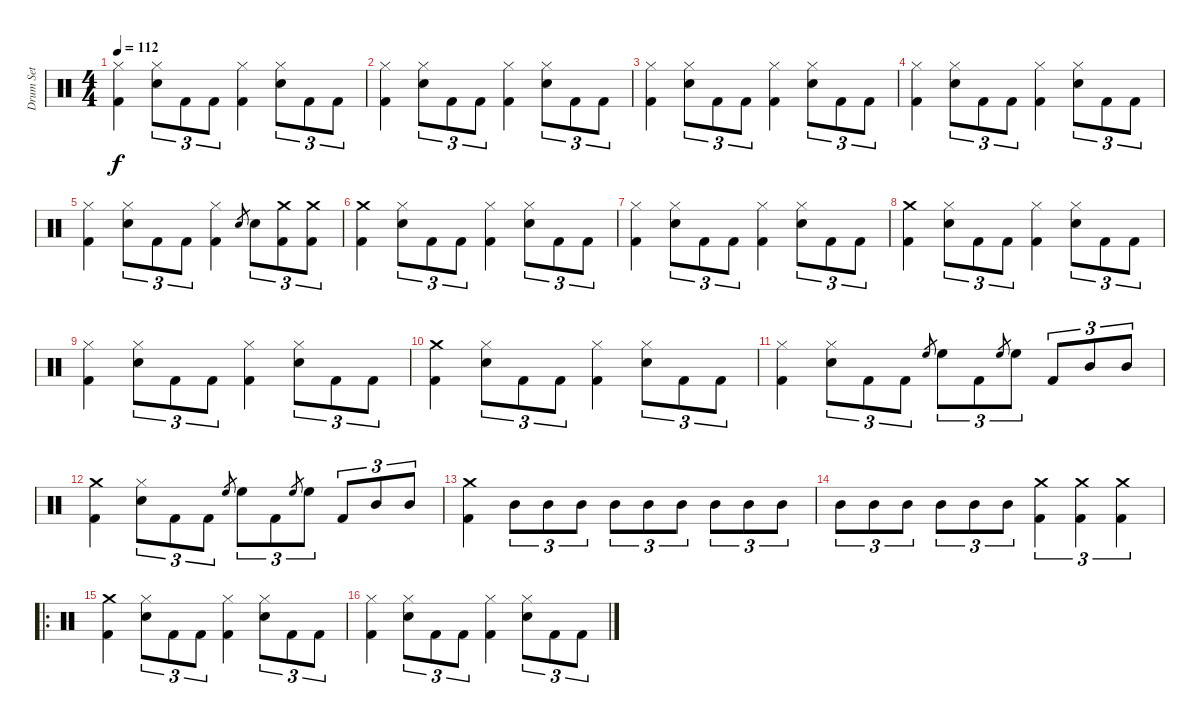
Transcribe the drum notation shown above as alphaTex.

\track ("Drum Set" "Drum Set") {instrument percussion}
\staff {score}
\articulation defaults
\ts (4 4)
\tempo 112
\clef neutral
\ks c
("Hi-Hat (closed)" "Kick (hit) 2").4{dy f} ("Hi-Hat (closed)" "Snare (hit) 2").8{tu (3 2)} "Kick (hit) 2".8{tu (3 2)} "Kick (hit) 2".8{tu (3 2)} ("Hi-Hat (closed)" "Kick (hit) 2").4 ("Hi-Hat (closed)" "Snare (hit) 2").8{tu (3 2)} "Kick (hit) 2".8{tu (3 2)} "Kick (hit) 2".8{tu (3 2)} |
("Hi-Hat (closed)" "Kick (hit) 2").4 ("Hi-Hat (closed)" "Snare (hit) 2").8{tu (3 2)} "Kick (hit) 2".8{tu (3 2)} "Kick (hit) 2".8{tu (3 2)} ("Hi-Hat (closed)" "Kick (hit) 2").4 ("Hi-Hat (closed)" "Snare (hit) 2").8{tu (3 2)} "Kick (hit) 2".8{tu (3 2)} "Kick (hit) 2".8{tu (3 2)} |
("Hi-Hat (closed)" "Kick (hit) 2").4 ("Hi-Hat (closed)" "Snare (hit) 2").8{tu (3 2)} "Kick (hit) 2".8{tu (3 2)} "Kick (hit) 2".8{tu (3 2)} ("Hi-Hat (closed)" "Kick (hit) 2").4 ("Hi-Hat (closed)" "Snare (hit) 2").8{tu (3 2)} "Kick (hit) 2".8{tu (3 2)} "Kick (hit) 2".8{tu (3 2)} |
("Hi-Hat (closed)" "Kick (hit) 2").4 ("Hi-Hat (closed)" "Snare (hit) 2").8{tu (3 2)} "Kick (hit) 2".8{tu (3 2)} "Kick (hit) 2".8{tu (3 2)} ("Hi-Hat (closed)" "Kick (hit) 2").4 ("Hi-Hat (closed)" "Snare (hit) 2").8{tu (3 2)} "Kick (hit) 2".8{tu (3 2)} "Kick (hit) 2".8{tu (3 2)} |
("Hi-Hat (closed)" "Kick (hit) 2").4 ("Hi-Hat (closed)" "Snare (hit) 2").8{tu (3 2)} "Kick (hit) 2".8{tu (3 2)} "Kick (hit) 2".8{tu (3 2)} ("Hi-Hat (closed)" "Kick (hit) 2").4 "Snare (hit) 2".8{gr} "Snare (hit) 2".8{tu (3 2)} ("Crash medium (hit)" "Kick (hit) 2").8{tu (3 2)} ("Crash medium (hit)" "Kick (hit) 2").8{tu (3 2)} |
("Crash medium (hit)" "Kick (hit) 2").4 ("Hi-Hat (closed)" "Snare (hit) 2").8{tu (3 2)} "Kick (hit) 2".8{tu (3 2)} "Kick (hit) 2".8{tu (3 2)} ("Hi-Hat (closed)" "Kick (hit) 2").4 ("Hi-Hat (closed)" "Snare (hit) 2").8{tu (3 2)} "Kick (hit) 2".8{tu (3 2)} "Kick (hit) 2".8{tu (3 2)} |
("Hi-Hat (closed)" "Kick (hit) 2").4 ("Hi-Hat (closed)" "Snare (hit) 2").8{tu (3 2)} "Kick (hit) 2".8{tu (3 2)} "Kick (hit) 2".8{tu (3 2)} ("Hi-Hat (closed)" "Kick (hit) 2").4 ("Hi-Hat (closed)" "Snare (hit) 2").8{tu (3 2)} "Kick (hit) 2".8{tu (3 2)} "Kick (hit) 2".8{tu (3 2)} |
("Crash medium (hit)" "Kick (hit) 2").4 ("Hi-Hat (closed)" "Snare (hit) 2").8{tu (3 2)} "Kick (hit) 2".8{tu (3 2)} "Kick (hit) 2".8{tu (3 2)} ("Hi-Hat (closed)" "Kick (hit) 2").4 ("Hi-Hat (closed)" "Snare (hit) 2").8{tu (3 2)} "Kick (hit) 2".8{tu (3 2)} "Kick (hit) 2".8{tu (3 2)} |
("Hi-Hat (closed)" "Kick (hit) 2").4 ("Hi-Hat (closed)" "Snare (hit) 2").8{tu (3 2)} "Kick (hit) 2".8{tu (3 2)} "Kick (hit) 2".8{tu (3 2)} ("Hi-Hat (closed)" "Kick (hit) 2").4 ("Hi-Hat (closed)" "Snare (hit) 2").8{tu (3 2)} "Kick (hit) 2".8{tu (3 2)} "Kick (hit) 2".8{tu (3 2)} |
("Crash medium (hit)" "Kick (hit) 2").4 ("Hi-Hat (closed)" "Snare (hit) 2").8{tu (3 2)} "Kick (hit) 2".8{tu (3 2)} "Kick (hit) 2".8{tu (3 2)} ("Hi-Hat (closed)" "Kick (hit) 2").4 ("Hi-Hat (closed)" "Snare (hit) 2").8{tu (3 2)} "Kick (hit) 2".8{tu (3 2)} "Kick (hit) 2".8{tu (3 2)} |
("Hi-Hat (closed)" "Kick (hit) 2").4 ("Hi-Hat (closed)" "Snare (hit) 2").8{tu (3 2)} "Kick (hit) 2".8{tu (3 2)} "Kick (hit) 2".8{tu (3 2)} "High Floor Tom (hit)".8{gr} "High Floor Tom (hit)".8{tu (3 2)} "Kick (hit) 2".8{tu (3 2)} "High Floor Tom (hit)".8{gr} "High Floor Tom (hit)".8{tu (3 2)} "Kick (hit) 2".8{tu (3 2)} "Mid Tom (hit)".8{tu (3 2)} "Mid Tom (hit)".8{tu (3 2)} |
("Crash medium (hit)" "Kick (hit) 2").4 ("Hi-Hat (closed)" "Snare (hit) 2").8{tu (3 2)} "Kick (hit) 2".8{tu (3 2)} "Kick (hit) 2".8{tu (3 2)} "High Floor Tom (hit)".8{gr} "High Floor Tom (hit)".8{tu (3 2)} "Kick (hit) 2".8{tu (3 2)} "High Floor Tom (hit)".8{gr} "High Floor Tom (hit)".8{tu (3 2)} "Kick (hit) 2".8{tu (3 2)} "Mid Tom (hit)".8{tu (3 2)} "Mid Tom (hit)".8{tu (3 2)} |
("Crash medium (hit)" "Kick (hit) 2").4 "Mid Tom (hit)".8{tu (3 2)} "Mid Tom (hit)".8{tu (3 2)} "Mid Tom (hit)".8{tu (3 2)} "Mid Tom (hit)".8{tu (3 2)} "Mid Tom (hit)".8{tu (3 2)} "Mid Tom (hit)".8{tu (3 2)} "Mid Tom (hit)".8{tu (3 2)} "Mid Tom (hit)".8{tu (3 2)} "Mid Tom (hit)".8{tu (3 2)} |
"Mid Tom (hit)".8{tu (3 2)} "Mid Tom (hit)".8{tu (3 2)} "Mid Tom (hit)".8{tu (3 2)} "Mid Tom (hit)".8{tu (3 2)} "Mid Tom (hit)".8{tu (3 2)} "Mid Tom (hit)".8{tu (3 2)} ("Crash medium (hit)" "Kick (hit) 2").4{tu (3 2)} ("Crash medium (hit)" "Kick (hit) 2").4{tu (3 2)} ("Crash medium (hit)" "Kick (hit) 2").4{tu (3 2)} |
\ro
("Crash medium (hit)" "Kick (hit) 2").4 ("Hi-Hat (closed)" "Snare (hit) 2").8{tu (3 2)} "Kick (hit) 2".8{tu (3 2)} "Kick (hit) 2".8{tu (3 2)} ("Hi-Hat (closed)" "Kick (hit) 2").4 ("Hi-Hat (closed)" "Snare (hit) 2").8{tu (3 2)} "Kick (hit) 2".8{tu (3 2)} "Kick (hit) 2".8{tu (3 2)} |
("Hi-Hat (closed)" "Kick (hit) 2").4 ("Hi-Hat (closed)" "Snare (hit) 2").8{tu (3 2)} "Kick (hit) 2".8{tu (3 2)} "Kick (hit) 2".8{tu (3 2)} ("Hi-Hat (closed)" "Kick (hit) 2").4 ("Hi-Hat (closed)" "Snare (hit) 2").8{tu (3 2)} "Kick (hit) 2".8{tu (3 2)} "Kick (hit) 2".8{tu (3 2)}
